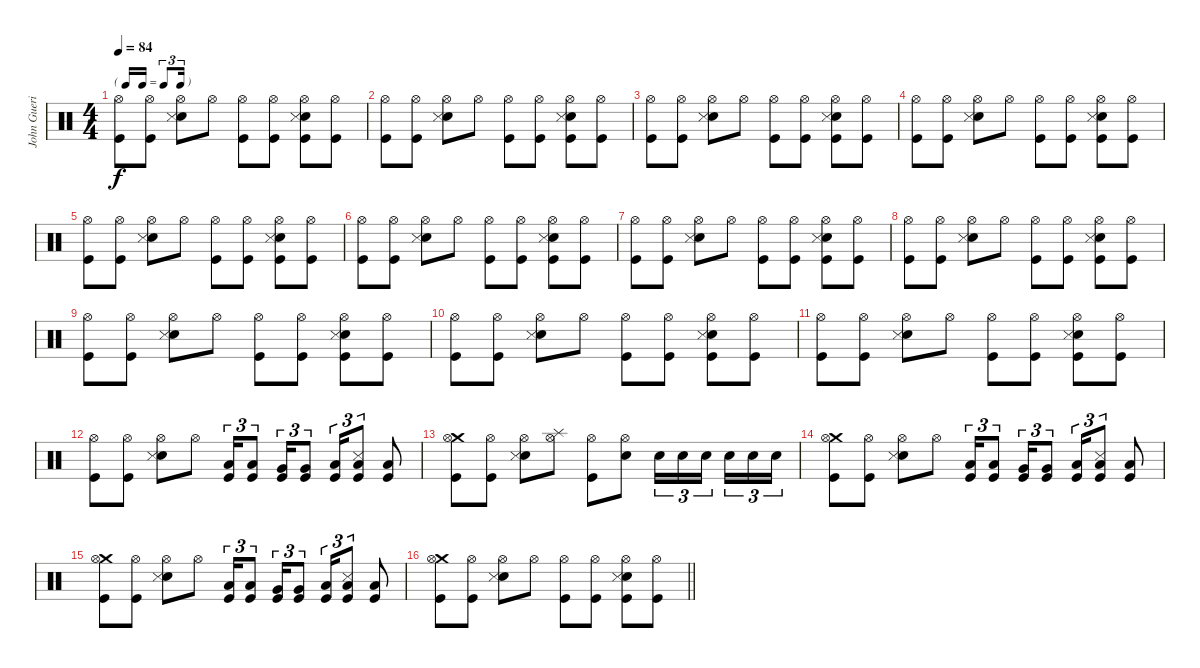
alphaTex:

\track ("John Guerin - Drums" "John Gueri") {instrument percussion}
\staff {score}
\articulation defaults
\ts (4 4)
\tf triplet16th
\tempo 84
\clef neutral
\ks c
("Hi-Hat (open)" "Kick (hit)").8{dy f} ("Hi-Hat (open)" "Kick (hit)").8 ("Hi-Hat (open)" "Electric Snare (hit)" "Snare (side stick) 3").8 "Hi-Hat (open)".8 ("Hi-Hat (open)" "Kick (hit)").8 ("Hi-Hat (open)" "Kick (hit)").8 ("Hi-Hat (open)" "Electric Snare (hit)" "Snare (side stick) 3" "Kick (hit)").8 ("Hi-Hat (open)" "Kick (hit)").8 |
("Hi-Hat (open)" "Kick (hit)").8 ("Hi-Hat (open)" "Kick (hit)").8 ("Hi-Hat (open)" "Electric Snare (hit)" "Snare (side stick) 3").8 "Hi-Hat (open)".8 ("Hi-Hat (open)" "Kick (hit)").8 ("Hi-Hat (open)" "Kick (hit)").8 ("Hi-Hat (open)" "Electric Snare (hit)" "Snare (side stick) 3" "Kick (hit)").8 ("Hi-Hat (open)" "Kick (hit)").8 |
("Hi-Hat (open)" "Kick (hit)").8 ("Hi-Hat (open)" "Kick (hit)").8 ("Hi-Hat (open)" "Electric Snare (hit)" "Snare (side stick) 3").8 "Hi-Hat (open)".8 ("Hi-Hat (open)" "Kick (hit)").8 ("Hi-Hat (open)" "Kick (hit)").8 ("Hi-Hat (open)" "Electric Snare (hit)" "Snare (side stick) 3" "Kick (hit)").8 ("Hi-Hat (open)" "Kick (hit)").8 |
("Hi-Hat (open)" "Kick (hit)").8 ("Hi-Hat (open)" "Kick (hit)").8 ("Hi-Hat (open)" "Electric Snare (hit)" "Snare (side stick) 3").8 "Hi-Hat (open)".8 ("Hi-Hat (open)" "Kick (hit)").8 ("Hi-Hat (open)" "Kick (hit)").8 ("Hi-Hat (open)" "Electric Snare (hit)" "Snare (side stick) 3" "Kick (hit)").8 ("Hi-Hat (open)" "Kick (hit)").8 |
("Hi-Hat (open)" "Kick (hit)").8 ("Hi-Hat (open)" "Kick (hit)").8 ("Hi-Hat (open)" "Electric Snare (hit)" "Snare (side stick) 3").8 "Hi-Hat (open)".8 ("Hi-Hat (open)" "Kick (hit)").8 ("Hi-Hat (open)" "Kick (hit)").8 ("Hi-Hat (open)" "Electric Snare (hit)" "Snare (side stick) 3" "Kick (hit)").8 ("Hi-Hat (open)" "Kick (hit)").8 |
("Hi-Hat (open)" "Kick (hit)").8 ("Hi-Hat (open)" "Kick (hit)").8 ("Hi-Hat (open)" "Electric Snare (hit)" "Snare (side stick) 3").8 "Hi-Hat (open)".8 ("Hi-Hat (open)" "Kick (hit)").8 ("Hi-Hat (open)" "Kick (hit)").8 ("Hi-Hat (open)" "Electric Snare (hit)" "Snare (side stick) 3" "Kick (hit)").8 ("Hi-Hat (open)" "Kick (hit)").8 |
("Hi-Hat (open)" "Kick (hit)").8 ("Hi-Hat (open)" "Kick (hit)").8 ("Hi-Hat (open)" "Electric Snare (hit)" "Snare (side stick) 3").8 "Hi-Hat (open)".8 ("Hi-Hat (open)" "Kick (hit)").8 ("Hi-Hat (open)" "Kick (hit)").8 ("Hi-Hat (open)" "Electric Snare (hit)" "Snare (side stick) 3" "Kick (hit)").8 ("Hi-Hat (open)" "Kick (hit)").8 |
("Hi-Hat (open)" "Kick (hit)").8 ("Hi-Hat (open)" "Kick (hit)").8 ("Hi-Hat (open)" "Electric Snare (hit)" "Snare (side stick) 3").8 "Hi-Hat (open)".8 ("Hi-Hat (open)" "Kick (hit)").8 ("Hi-Hat (open)" "Kick (hit)").8 ("Hi-Hat (open)" "Electric Snare (hit)" "Snare (side stick) 3" "Kick (hit)").8 ("Hi-Hat (open)" "Kick (hit)").8 |
("Hi-Hat (open)" "Kick (hit)").8 ("Hi-Hat (open)" "Kick (hit)").8 ("Hi-Hat (open)" "Electric Snare (hit)" "Snare (side stick) 3").8 "Hi-Hat (open)".8 ("Hi-Hat (open)" "Kick (hit)").8 ("Hi-Hat (open)" "Kick (hit)").8 ("Hi-Hat (open)" "Electric Snare (hit)" "Snare (side stick) 3" "Kick (hit)").8 ("Hi-Hat (open)" "Kick (hit)").8 |
("Hi-Hat (open)" "Kick (hit)").8 ("Hi-Hat (open)" "Kick (hit)").8 ("Hi-Hat (open)" "Electric Snare (hit)" "Snare (side stick) 3").8 "Hi-Hat (open)".8 ("Hi-Hat (open)" "Kick (hit)").8 ("Hi-Hat (open)" "Kick (hit)").8 ("Hi-Hat (open)" "Electric Snare (hit)" "Snare (side stick) 3" "Kick (hit)").8 ("Hi-Hat (open)" "Kick (hit)").8 |
("Hi-Hat (open)" "Kick (hit)").8 ("Hi-Hat (open)" "Kick (hit)").8 ("Hi-Hat (open)" "Electric Snare (hit)" "Snare (side stick) 3").8 "Hi-Hat (open)".8 ("Hi-Hat (open)" "Kick (hit)").8 ("Hi-Hat (open)" "Kick (hit)").8 ("Hi-Hat (open)" "Electric Snare (hit)" "Snare (side stick) 3" "Kick (hit)").8 ("Hi-Hat (open)" "Kick (hit)").8 |
("Hi-Hat (open)" "Kick (hit)").8 ("Hi-Hat (open)" "Kick (hit)").8 ("Hi-Hat (open)" "Electric Snare (hit)" "Snare (side stick) 3").8 "Hi-Hat (open)".8 ("Low Tom (hit)" "Kick (hit)").16{tu (3 2)} ("Low Tom (hit)" "Kick (hit)").8{tu (3 2)} ("Very Low Tom (hit)" "Kick (hit)").16{tu (3 2)} ("Very Low Tom (hit)" "Kick (hit)").8{tu (3 2)} ("Low Floor Tom (hit)" "Kick (hit)").16{tu (3 2)} ("Low Floor Tom (hit)" "Snare (side stick) 3" "Kick (hit)").8{tu (3 2)} ("Low Floor Tom (hit)" "Kick (hit)").8 |
("Crash medium (hit)" "Hi-Hat (open)" "Kick (hit)").8 ("Hi-Hat (open)" "Kick (hit)").8 ("Hi-Hat (open)" "Electric Snare (hit)" "Snare (side stick) 3").8 ("Splash (hit)" "Hi-Hat (open)").8 ("Hi-Hat (open)" "Kick (hit)").8 ("Hi-Hat (open)" "Electric Snare (hit)").8 "Electric Snare (hit)".16{tu (3 2)} "Electric Snare (hit)".16{tu (3 2)} "Electric Snare (hit)".16{tu (3 2) beam splitsecondary} "Electric Snare (hit)".16{tu (3 2)} "Electric Snare (hit)".16{tu (3 2)} "Electric Snare (hit)".16{tu (3 2)} |
("Crash medium (hit)" "Hi-Hat (open)" "Kick (hit)").8 ("Hi-Hat (open)" "Kick (hit)").8 ("Hi-Hat (open)" "Electric Snare (hit)" "Snare (side stick) 3").8 "Hi-Hat (open)".8 ("Low Tom (hit)" "Kick (hit)").16{tu (3 2)} ("Low Tom (hit)" "Kick (hit)").8{tu (3 2)} ("Very Low Tom (hit)" "Kick (hit)").16{tu (3 2)} ("Very Low Tom (hit)" "Kick (hit)").8{tu (3 2)} ("Low Floor Tom (hit)" "Kick (hit)").16{tu (3 2)} ("Low Floor Tom (hit)" "Snare (side stick) 3" "Kick (hit)").8{tu (3 2)} ("Low Floor Tom (hit)" "Kick (hit)").8 |
("Crash medium (hit)" "Hi-Hat (open)" "Kick (hit)").8 ("Hi-Hat (open)" "Kick (hit)").8 ("Hi-Hat (open)" "Electric Snare (hit)" "Snare (side stick) 3").8 "Hi-Hat (open)".8 ("Low Tom (hit)" "Kick (hit)").16{tu (3 2)} ("Low Tom (hit)" "Kick (hit)").8{tu (3 2)} ("Very Low Tom (hit)" "Kick (hit)").16{tu (3 2)} ("Very Low Tom (hit)" "Kick (hit)").8{tu (3 2)} ("Low Floor Tom (hit)" "Kick (hit)").16{tu (3 2)} ("Low Floor Tom (hit)" "Snare (side stick) 3" "Kick (hit)").8{tu (3 2)} ("Low Floor Tom (hit)" "Kick (hit)").8 |
\barLineRight lightlight
("Crash medium (hit)" "Hi-Hat (open)" "Kick (hit)").8 ("Hi-Hat (open)" "Kick (hit)").8 ("Hi-Hat (open)" "Electric Snare (hit)" "Snare (side stick) 3").8 "Hi-Hat (open)".8 ("Hi-Hat (open)" "Kick (hit)").8 ("Hi-Hat (open)" "Kick (hit)").8 ("Hi-Hat (open)" "Electric Snare (hit)" "Snare (side stick) 3" "Kick (hit)").8 ("Hi-Hat (open)" "Kick (hit)").8
